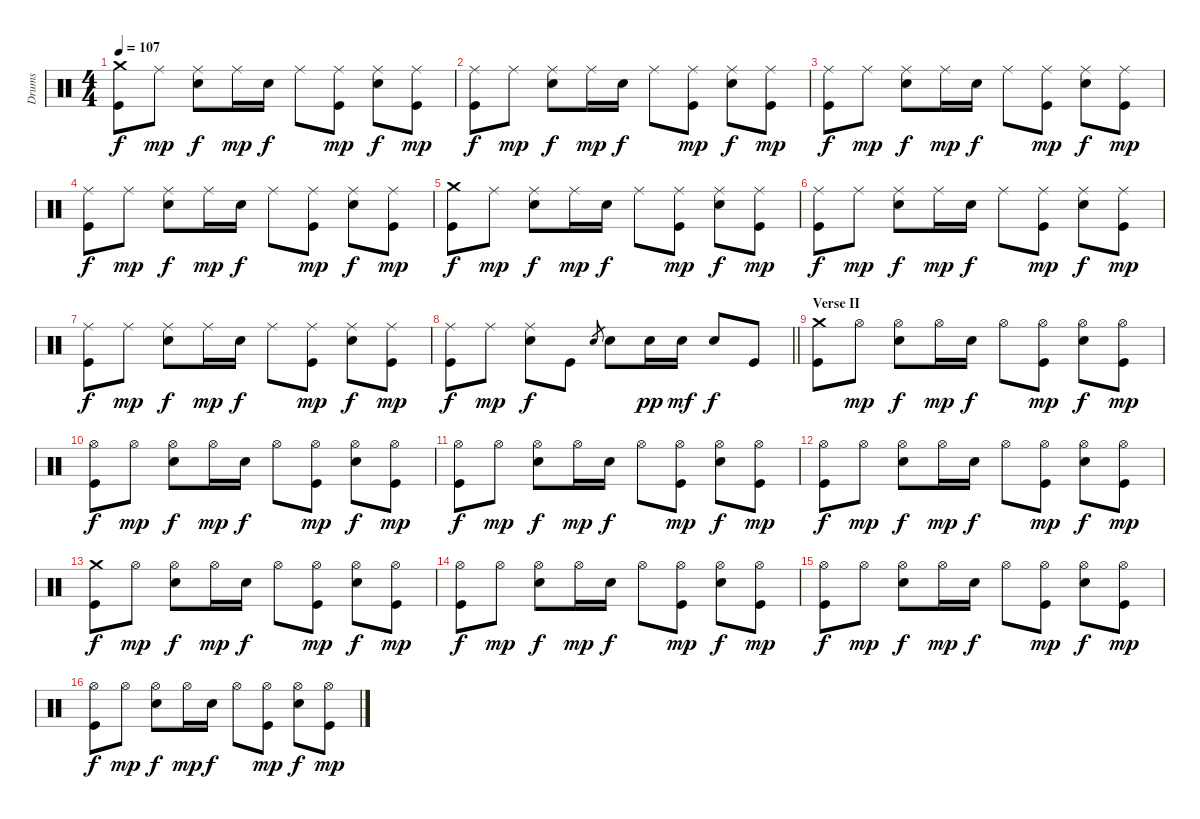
\track ("Drums" "Drums") {instrument percussion}
\staff {score}
\articulation defaults
\ts (4 4)
\tempo 107
\clef neutral
\ks c
("Crash medium (hit)" "Kick (hit)").8{dy f} "Ride (middle)".8{dy mp} ("Ride (middle)" "Electric Snare (hit)").8{dy f} "Ride (middle)".16{dy mp} "Electric Snare (hit)".16{dy f} "Ride (middle)".8 ("Ride (middle)" "Kick (hit)").8{dy mp} ("Ride (middle)" "Electric Snare (hit)").8{dy f} ("Ride (middle)" "Kick (hit)").8{dy mp} |
("Ride (middle)" "Kick (hit)").8{dy f} "Ride (middle)".8{dy mp} ("Ride (middle)" "Electric Snare (hit)").8{dy f} "Ride (middle)".16{dy mp} "Electric Snare (hit)".16{dy f} "Ride (middle)".8 ("Ride (middle)" "Kick (hit)").8{dy mp} ("Ride (middle)" "Electric Snare (hit)").8{dy f} ("Ride (middle)" "Kick (hit)").8{dy mp} |
("Ride (middle)" "Kick (hit)").8{dy f} "Ride (middle)".8{dy mp} ("Ride (middle)" "Electric Snare (hit)").8{dy f} "Ride (middle)".16{dy mp} "Electric Snare (hit)".16{dy f} "Ride (middle)".8 ("Ride (middle)" "Kick (hit)").8{dy mp} ("Ride (middle)" "Electric Snare (hit)").8{dy f} ("Ride (middle)" "Kick (hit)").8{dy mp} |
("Ride (middle)" "Kick (hit)").8{dy f} "Ride (middle)".8{dy mp} ("Ride (middle)" "Electric Snare (hit)").8{dy f} "Ride (middle)".16{dy mp} "Electric Snare (hit)".16{dy f} "Ride (middle)".8 ("Ride (middle)" "Kick (hit)").8{dy mp} ("Ride (middle)" "Electric Snare (hit)").8{dy f} ("Ride (middle)" "Kick (hit)").8{dy mp} |
("Crash medium (hit)" "Kick (hit)").8{dy f} "Ride (middle)".8{dy mp} ("Ride (middle)" "Electric Snare (hit)").8{dy f} "Ride (middle)".16{dy mp} "Electric Snare (hit)".16{dy f} "Ride (middle)".8 ("Ride (middle)" "Kick (hit)").8{dy mp} ("Ride (middle)" "Electric Snare (hit)").8{dy f} ("Ride (middle)" "Kick (hit)").8{dy mp} |
("Ride (middle)" "Kick (hit)").8{dy f} "Ride (middle)".8{dy mp} ("Ride (middle)" "Electric Snare (hit)").8{dy f} "Ride (middle)".16{dy mp} "Electric Snare (hit)".16{dy f} "Ride (middle)".8 ("Ride (middle)" "Kick (hit)").8{dy mp} ("Ride (middle)" "Electric Snare (hit)").8{dy f} ("Ride (middle)" "Kick (hit)").8{dy mp} |
("Ride (middle)" "Kick (hit)").8{dy f} "Ride (middle)".8{dy mp} ("Ride (middle)" "Electric Snare (hit)").8{dy f} "Ride (middle)".16{dy mp} "Electric Snare (hit)".16{dy f} "Ride (middle)".8 ("Ride (middle)" "Kick (hit)").8{dy mp} ("Ride (middle)" "Electric Snare (hit)").8{dy f} ("Ride (middle)" "Kick (hit)").8{dy mp} |
\barLineRight lightlight
("Ride (middle)" "Kick (hit)").8{dy f} "Ride (middle)".8{dy mp} ("Ride (middle)" "Electric Snare (hit)").8{dy f} "Kick (hit)".8 "Electric Snare (hit)".8{gr} "Electric Snare (hit)".8 "Electric Snare (hit)".16{dy pp} "Electric Snare (hit)".16{dy mf} "Electric Snare (hit)".8{dy f} "Kick (hit)".8 |
\section ("" "Verse II")
("Crash medium (hit)" "Kick (hit)").8 "Hi-Hat (open)".8{dy mp} ("Hi-Hat (open)" "Electric Snare (hit)").8{dy f} "Hi-Hat (open)".16{dy mp} "Electric Snare (hit)".16{dy f} "Hi-Hat (open)".8 ("Hi-Hat (open)" "Kick (hit)").8{dy mp} ("Hi-Hat (open)" "Electric Snare (hit)").8{dy f} ("Hi-Hat (open)" "Kick (hit)").8{dy mp} |
("Hi-Hat (open)" "Kick (hit)").8{dy f} "Hi-Hat (open)".8{dy mp} ("Hi-Hat (open)" "Electric Snare (hit)").8{dy f} "Hi-Hat (open)".16{dy mp} "Electric Snare (hit)".16{dy f} "Hi-Hat (open)".8 ("Hi-Hat (open)" "Kick (hit)").8{dy mp} ("Hi-Hat (open)" "Electric Snare (hit)").8{dy f} ("Hi-Hat (open)" "Kick (hit)").8{dy mp} |
("Hi-Hat (open)" "Kick (hit)").8{dy f} "Hi-Hat (open)".8{dy mp} ("Hi-Hat (open)" "Electric Snare (hit)").8{dy f} "Hi-Hat (open)".16{dy mp} "Electric Snare (hit)".16{dy f} "Hi-Hat (open)".8 ("Hi-Hat (open)" "Kick (hit)").8{dy mp} ("Hi-Hat (open)" "Electric Snare (hit)").8{dy f} ("Hi-Hat (open)" "Kick (hit)").8{dy mp} |
("Hi-Hat (open)" "Kick (hit)").8{dy f} "Hi-Hat (open)".8{dy mp} ("Hi-Hat (open)" "Electric Snare (hit)").8{dy f} "Hi-Hat (open)".16{dy mp} "Electric Snare (hit)".16{dy f} "Hi-Hat (open)".8 ("Hi-Hat (open)" "Kick (hit)").8{dy mp} ("Hi-Hat (open)" "Electric Snare (hit)").8{dy f} ("Hi-Hat (open)" "Kick (hit)").8{dy mp} |
("Crash medium (hit)" "Kick (hit)").8{dy f} "Hi-Hat (open)".8{dy mp} ("Hi-Hat (open)" "Electric Snare (hit)").8{dy f} "Hi-Hat (open)".16{dy mp} "Electric Snare (hit)".16{dy f} "Hi-Hat (open)".8 ("Hi-Hat (open)" "Kick (hit)").8{dy mp} ("Hi-Hat (open)" "Electric Snare (hit)").8{dy f} ("Hi-Hat (open)" "Kick (hit)").8{dy mp} |
("Hi-Hat (open)" "Kick (hit)").8{dy f} "Hi-Hat (open)".8{dy mp} ("Hi-Hat (open)" "Electric Snare (hit)").8{dy f} "Hi-Hat (open)".16{dy mp} "Electric Snare (hit)".16{dy f} "Hi-Hat (open)".8 ("Hi-Hat (open)" "Kick (hit)").8{dy mp} ("Hi-Hat (open)" "Electric Snare (hit)").8{dy f} ("Hi-Hat (open)" "Kick (hit)").8{dy mp} |
("Hi-Hat (open)" "Kick (hit)").8{dy f} "Hi-Hat (open)".8{dy mp} ("Hi-Hat (open)" "Electric Snare (hit)").8{dy f} "Hi-Hat (open)".16{dy mp} "Electric Snare (hit)".16{dy f} "Hi-Hat (open)".8 ("Hi-Hat (open)" "Kick (hit)").8{dy mp} ("Hi-Hat (open)" "Electric Snare (hit)").8{dy f} ("Hi-Hat (open)" "Kick (hit)").8{dy mp} |
("Hi-Hat (open)" "Kick (hit)").8{dy f} "Hi-Hat (open)".8{dy mp} ("Hi-Hat (open)" "Electric Snare (hit)").8{dy f} "Hi-Hat (open)".16{dy mp} "Electric Snare (hit)".16{dy f} "Hi-Hat (open)".8 ("Hi-Hat (open)" "Kick (hit)").8{dy mp} ("Hi-Hat (open)" "Electric Snare (hit)").8{dy f} ("Hi-Hat (open)" "Kick (hit)").8{dy mp}
